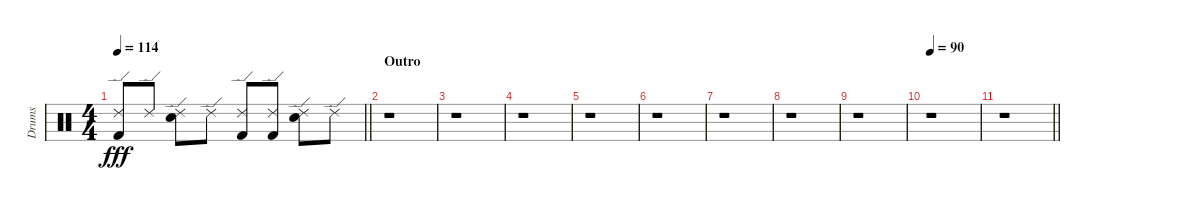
\track ("Drums" "Drums") {instrument percussion}
\staff {score}
\articulation defaults
\ts (4 4)
\tempo 114
\clef neutral
\barLineRight lightlight
\ks c
("Ride (edge) 2" "Kick (hit) 2").8{dy fff} "Ride (edge) 2".8 ("Ride (edge) 2" "Snare (hit) 2").8 "Ride (edge) 2".8 ("Ride (edge) 2" "Kick (hit) 2").8 ("Ride (edge) 2" "Kick (hit) 2").8 ("Ride (edge) 2" "Snare (hit) 2").8 "Ride (edge) 2".8 |
\section ("" "Outro")
r.1 |
r.1 |
r.1 |
r.1 |
r.1 |
r.1 |
r.1 |
r.1 |
\tempo 90
r.1 |
\barLineRight lightlight
r.1
